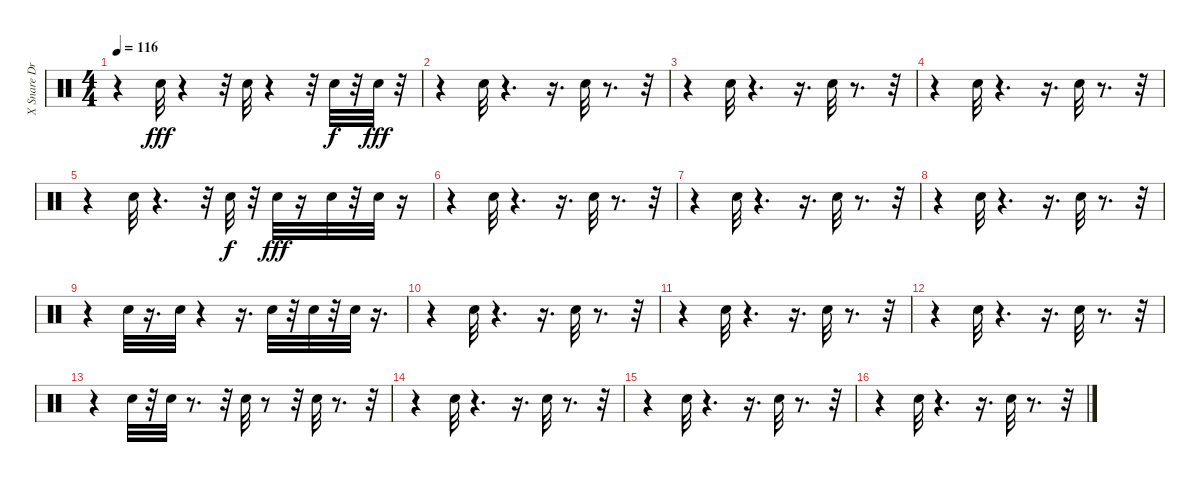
\track ("X Snare Drum        " "X Snare Dr") {instrument percussion}
\staff {score}
\articulation defaults
\ts (4 4)
\tempo 116
\clef neutral
\ks c
r.4{dy fff} "Snare (hit) 2".32 r.4 r.32 "Snare (hit) 2".32 r.4 r.32 "Snare (hit) 2".32{dy f} r.32 "Snare (hit) 2".32{dy fff} r.32 |
r.4 "Snare (hit) 2".32 r.4{d} r.16{d} "Snare (hit) 2".32 r.8{d} r.32 |
r.4 "Snare (hit) 2".32 r.4{d} r.16{d} "Snare (hit) 2".32 r.8{d} r.32 |
r.4 "Snare (hit) 2".32 r.4{d} r.16{d} "Snare (hit) 2".32 r.8{d} r.32 |
r.4 "Snare (hit) 2".32 r.4{d} r.32 "Snare (hit) 2".32{dy f} r.32 "Snare (hit) 2".32{dy fff} r.16 "Snare (hit) 2".32 r.32 "Snare (hit) 2".32 r.16 |
r.4 "Snare (hit) 2".32 r.4{d} r.16{d} "Snare (hit) 2".32 r.8{d} r.32 |
r.4 "Snare (hit) 2".32 r.4{d} r.16{d} "Snare (hit) 2".32 r.8{d} r.32 |
r.4 "Snare (hit) 2".32 r.4{d} r.16{d} "Snare (hit) 2".32 r.8{d} r.32 |
r.4 "Snare (hit) 2".32 r.16{d} "Snare (hit) 2".32 r.4 r.16{d} "Snare (hit) 2".32 r.32 "Snare (hit) 2".32 r.32 "Snare (hit) 2".32 r.16{d} |
r.4 "Snare (hit) 2".32 r.4{d} r.16{d} "Snare (hit) 2".32 r.8{d} r.32 |
r.4 "Snare (hit) 2".32 r.4{d} r.16{d} "Snare (hit) 2".32 r.8{d} r.32 |
r.4 "Snare (hit) 2".32 r.4{d} r.16{d} "Snare (hit) 2".32 r.8{d} r.32 |
r.4 "Snare (hit) 2".32 r.32 "Snare (hit) 2".32 r.8{d} r.32 "Snare (hit) 2".32 r.8 r.32 "Snare (hit) 2".32 r.8{d} r.32 |
r.4 "Snare (hit) 2".32 r.4{d} r.16{d} "Snare (hit) 2".32 r.8{d} r.32 |
r.4 "Snare (hit) 2".32 r.4{d} r.16{d} "Snare (hit) 2".32 r.8{d} r.32 |
r.4 "Snare (hit) 2".32 r.4{d} r.16{d} "Snare (hit) 2".32 r.8{d} r.32
